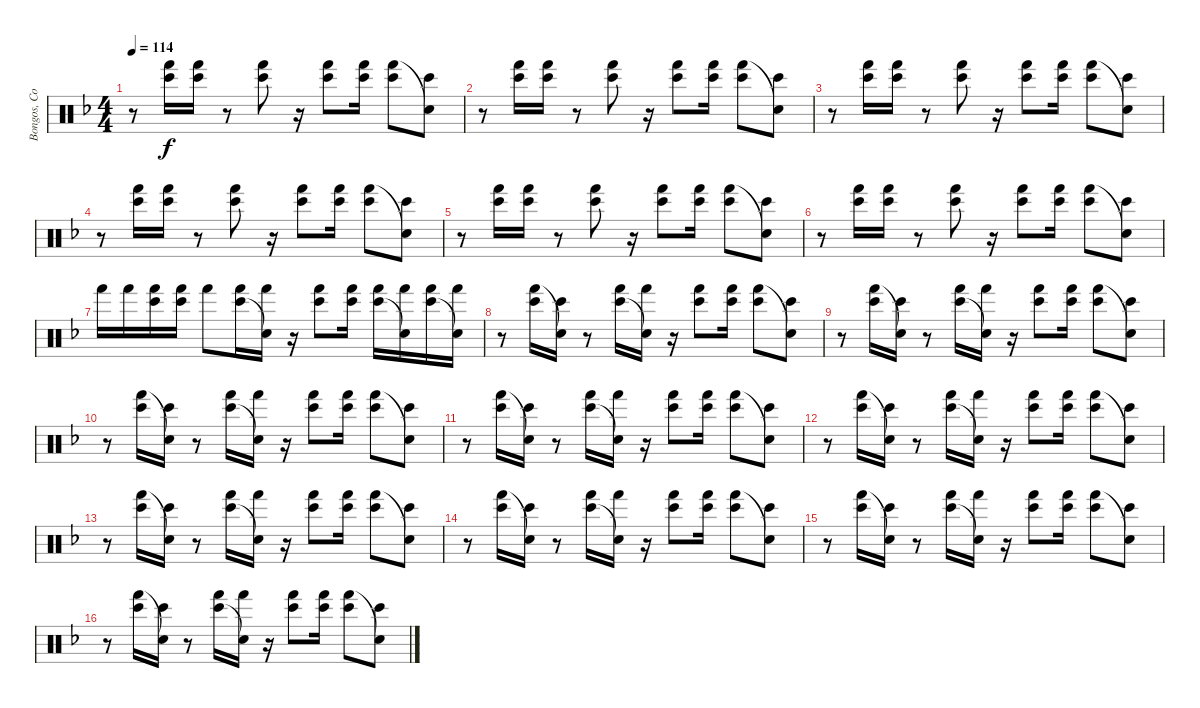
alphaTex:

\track ("Bongos, Congas, Timbales" "Bongos, Co") {instrument percussion}
\staff {score}
\articulation defaults
\ts (4 4)
\tempo 114
\clef neutral
\ks f
r.8{dy f} ("Bongo High (hit)" "Hand (hit)").16 ("Bongo High (hit)" "Hand (hit)").16 r.8 ("Bongo High (hit)" "Hand (hit)").8 r.16 ("Bongo High (hit)" "Hand (hit)").8 ("Bongo High (hit)" "Hand (hit)").16 ("Bongo High (hit)" "Hand (hit)").8 ("Bongo High (hit)" "Snare (hit)"{t}).8 |
r.8 ("Bongo High (hit)" "Hand (hit)").16 ("Bongo High (hit)" "Hand (hit)").16 r.8 ("Bongo High (hit)" "Hand (hit)").8 r.16 ("Bongo High (hit)" "Hand (hit)").8 ("Bongo High (hit)" "Hand (hit)").16 ("Bongo High (hit)" "Hand (hit)").8 ("Bongo High (hit)" "Snare (hit)"{t}).8 |
r.8 ("Bongo High (hit)" "Hand (hit)").16 ("Bongo High (hit)" "Hand (hit)").16 r.8 ("Bongo High (hit)" "Hand (hit)").8 r.16 ("Bongo High (hit)" "Hand (hit)").8 ("Bongo High (hit)" "Hand (hit)").16 ("Bongo High (hit)" "Hand (hit)").8 ("Bongo High (hit)" "Snare (hit)"{t}).8 |
r.8 ("Bongo High (hit)" "Hand (hit)").16 ("Bongo High (hit)" "Hand (hit)").16 r.8 ("Bongo High (hit)" "Hand (hit)").8 r.16 ("Bongo High (hit)" "Hand (hit)").8 ("Bongo High (hit)" "Hand (hit)").16 ("Bongo High (hit)" "Hand (hit)").8 ("Bongo High (hit)" "Snare (hit)"{t}).8 |
r.8 ("Bongo High (hit)" "Hand (hit)").16 ("Bongo High (hit)" "Hand (hit)").16 r.8 ("Bongo High (hit)" "Hand (hit)").8 r.16 ("Bongo High (hit)" "Hand (hit)").8 ("Bongo High (hit)" "Hand (hit)").16 ("Bongo High (hit)" "Hand (hit)").8 ("Bongo High (hit)" "Snare (hit)"{t}).8 |
r.8 ("Bongo High (hit)" "Hand (hit)").16 ("Bongo High (hit)" "Hand (hit)").16 r.8 ("Bongo High (hit)" "Hand (hit)").8 r.16 ("Bongo High (hit)" "Hand (hit)").8 ("Bongo High (hit)" "Hand (hit)").16 ("Bongo High (hit)" "Hand (hit)").8 ("Bongo High (hit)" "Snare (hit)"{t}).8 |
"Hand (hit)".16 "Hand (hit)".16 ("Bongo High (hit)" "Hand (hit)").16 ("Bongo High (hit)" "Hand (hit)").16 "Hand (hit)".8 ("Bongo High (hit)" "Hand (hit)").16 ("Snare (hit)"{t} "Hand (hit)").16 r.16 ("Bongo High (hit)" "Hand (hit)").8 ("Bongo High (hit)" "Hand (hit)").16 ("Bongo High (hit)" "Hand (hit)").16 ("Snare (hit)"{t} "Hand (hit)").16 ("Bongo High (hit)" "Hand (hit)").16 ("Metronome (bell)"{t} "Hand (hit)").16 |
r.8 ("Bongo High (hit)" "Hand (hit)").16 ("Bongo High (hit)" "Snare (hit)"{t}).16 r.8 ("Bongo High (hit)" "Hand (hit)").16 ("Snare (hit)"{t} "Hand (hit)").16 r.16 ("Bongo High (hit)" "Hand (hit)").8 ("Bongo High (hit)" "Hand (hit)").16 ("Bongo High (hit)" "Hand (hit)").8 ("Bongo High (hit)" "Snare (hit)"{t}).8 |
r.8 ("Bongo High (hit)" "Hand (hit)").16 ("Bongo High (hit)" "Snare (hit)"{t}).16 r.8 ("Bongo High (hit)" "Hand (hit)").16 ("Snare (hit)"{t} "Hand (hit)").16 r.16 ("Bongo High (hit)" "Hand (hit)").8 ("Bongo High (hit)" "Hand (hit)").16 ("Bongo High (hit)" "Hand (hit)").8 ("Bongo High (hit)" "Snare (hit)"{t}).8 |
r.8 ("Bongo High (hit)" "Hand (hit)").16 ("Bongo High (hit)" "Snare (hit)"{t}).16 r.8 ("Bongo High (hit)" "Hand (hit)").16 ("Snare (hit)"{t} "Hand (hit)").16 r.16 ("Bongo High (hit)" "Hand (hit)").8 ("Bongo High (hit)" "Hand (hit)").16 ("Bongo High (hit)" "Hand (hit)").8 ("Bongo High (hit)" "Snare (hit)"{t}).8 |
r.8 ("Bongo High (hit)" "Hand (hit)").16 ("Bongo High (hit)" "Snare (hit)"{t}).16 r.8 ("Bongo High (hit)" "Hand (hit)").16 ("Snare (hit)"{t} "Hand (hit)").16 r.16 ("Bongo High (hit)" "Hand (hit)").8 ("Bongo High (hit)" "Hand (hit)").16 ("Bongo High (hit)" "Hand (hit)").8 ("Bongo High (hit)" "Snare (hit)"{t}).8 |
r.8 ("Bongo High (hit)" "Hand (hit)").16 ("Bongo High (hit)" "Snare (hit)"{t}).16 r.8 ("Bongo High (hit)" "Hand (hit)").16 ("Snare (hit)"{t} "Hand (hit)").16 r.16 ("Bongo High (hit)" "Hand (hit)").8 ("Bongo High (hit)" "Hand (hit)").16 ("Bongo High (hit)" "Hand (hit)").8 ("Bongo High (hit)" "Snare (hit)"{t}).8 |
r.8 ("Bongo High (hit)" "Hand (hit)").16 ("Bongo High (hit)" "Snare (hit)"{t}).16 r.8 ("Bongo High (hit)" "Hand (hit)").16 ("Snare (hit)"{t} "Hand (hit)").16 r.16 ("Bongo High (hit)" "Hand (hit)").8 ("Bongo High (hit)" "Hand (hit)").16 ("Bongo High (hit)" "Hand (hit)").8 ("Bongo High (hit)" "Snare (hit)"{t}).8 |
r.8 ("Bongo High (hit)" "Hand (hit)").16 ("Bongo High (hit)" "Snare (hit)"{t}).16 r.8 ("Bongo High (hit)" "Hand (hit)").16 ("Snare (hit)"{t} "Hand (hit)").16 r.16 ("Bongo High (hit)" "Hand (hit)").8 ("Bongo High (hit)" "Hand (hit)").16 ("Bongo High (hit)" "Hand (hit)").8 ("Bongo High (hit)" "Snare (hit)"{t}).8 |
r.8 ("Bongo High (hit)" "Hand (hit)").16 ("Bongo High (hit)" "Snare (hit)"{t}).16 r.8 ("Bongo High (hit)" "Hand (hit)").16 ("Snare (hit)"{t} "Hand (hit)").16 r.16 ("Bongo High (hit)" "Hand (hit)").8 ("Bongo High (hit)" "Hand (hit)").16 ("Bongo High (hit)" "Hand (hit)").8 ("Bongo High (hit)" "Snare (hit)"{t}).8 |
r.8 ("Bongo High (hit)" "Hand (hit)").16 ("Bongo High (hit)" "Snare (hit)"{t}).16 r.8 ("Bongo High (hit)" "Hand (hit)").16 ("Snare (hit)"{t} "Hand (hit)").16 r.16 ("Bongo High (hit)" "Hand (hit)").8 ("Bongo High (hit)" "Hand (hit)").16 ("Bongo High (hit)" "Hand (hit)").8 ("Bongo High (hit)" "Snare (hit)"{t}).8
